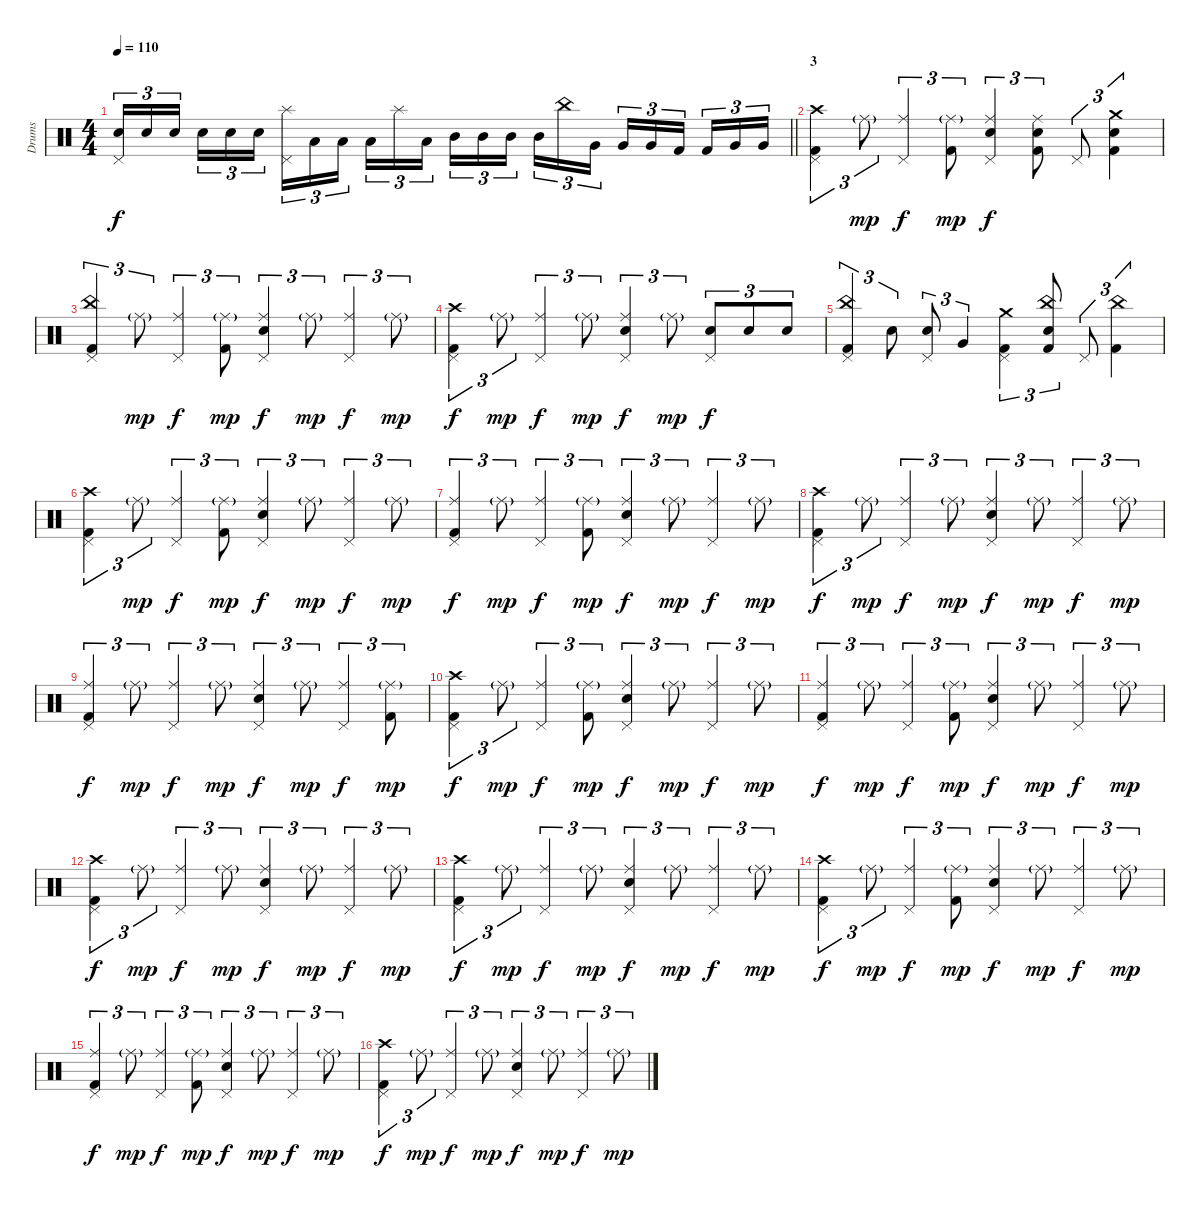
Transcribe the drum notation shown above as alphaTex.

\track ("Drums" "Drums") {instrument percussion}
\staff {score}
\articulation defaults
\ts (4 4)
\tempo 110
\clef neutral
\barLineRight lightlight
\ks c
("Pedal Hi-Hat (hit)" "Electric Snare (hit)").16{tu (3 2) dy f} "Electric Snare (hit)".16{tu (3 2)} "Electric Snare (hit)".16{tu (3 2) beam splitsecondary} "Electric Snare (hit)".16{tu (3 2)} "Electric Snare (hit)".16{tu (3 2)} "Electric Snare (hit)".16{tu (3 2)} ("Pedal Hi-Hat (hit)" "Splash (hit)").16{tu (3 2)} "Low Tom (hit)".16{tu (3 2)} "Low Tom (hit)".16{tu (3 2) beam splitsecondary} "Low Tom (hit)".16{tu (3 2)} "Splash (hit)".16{tu (3 2)} "Low Tom (hit)".16{tu (3 2)} "Mid Tom (hit)".16{tu (3 2)} "Mid Tom (hit)".16{tu (3 2)} "Mid Tom (hit)".16{tu (3 2) beam splitsecondary} "Mid Tom (hit)".16{tu (3 2)} "China (hit)".16{tu (3 2)} "Very Low Tom (hit)".16{tu (3 2)} "Very Low Tom (hit)".16{tu (3 2)} "Very Low Tom (hit)".16{tu (3 2)} "Kick (hit) 2".16{tu (3 2) beam splitsecondary} "Kick (hit) 2".16{tu (3 2)} "Very Low Tom (hit)".16{tu (3 2)} "Very Low Tom (hit)".16{tu (3 2)} |
\section ("" "3")
("Crash high (hit)" "Pedal Hi-Hat (hit)" "Kick (hit) 2").4{tu (3 2)} "Ride (middle)"{g}.8{tu (3 2) dy mp} ("Ride (middle)" "Pedal Hi-Hat (hit)").4{tu (3 2) dy f} ("Ride (middle)"{g} "Kick (hit) 2").8{tu (3 2) dy mp} ("Ride (middle)" "Pedal Hi-Hat (hit)" "Electric Snare (hit)").4{tu (3 2) dy f} ("Ride (middle)" "Electric Snare (hit)" "Kick (hit) 2").8{tu (3 2)} "Pedal Hi-Hat (hit)".8{tu (3 2)} ("Crash medium (hit)" "Electric Snare (hit)" "Kick (hit) 2").4{tu (3 2)} |
("China (hit)" "Pedal Hi-Hat (hit)" "Kick (hit) 2").4{tu (3 2)} "Ride (middle)"{g}.8{tu (3 2) dy mp} ("Ride (middle)" "Pedal Hi-Hat (hit)").4{tu (3 2) dy f} ("Ride (middle)"{g} "Kick (hit) 2").8{tu (3 2) dy mp} ("Ride (middle)" "Pedal Hi-Hat (hit)" "Electric Snare (hit)").4{tu (3 2) dy f} "Ride (middle)"{g}.8{tu (3 2) dy mp} ("Ride (middle)" "Pedal Hi-Hat (hit)").4{tu (3 2) dy f} "Ride (middle)"{g}.8{tu (3 2) dy mp} |
("Crash high (hit)" "Pedal Hi-Hat (hit)" "Kick (hit) 2").4{tu (3 2) dy f} "Ride (middle)"{g}.8{tu (3 2) dy mp} ("Ride (middle)" "Pedal Hi-Hat (hit)").4{tu (3 2) dy f} "Ride (middle)"{g}.8{tu (3 2) dy mp} ("Ride (middle)" "Pedal Hi-Hat (hit)" "Electric Snare (hit)").4{tu (3 2) dy f} "Ride (middle)"{g}.8{tu (3 2) dy mp} ("Pedal Hi-Hat (hit)" "Electric Snare (hit)").8{tu (3 2) dy f} "Electric Snare (hit)".8{tu (3 2)} "Electric Snare (hit)".8{tu (3 2)} |
("China (hit)" "Pedal Hi-Hat (hit)" "Kick (hit) 2").4{tu (3 2)} "Electric Snare (hit)".8{tu (3 2)} ("Pedal Hi-Hat (hit)" "Electric Snare (hit)").8{tu (3 2)} "Very Low Tom (hit)".4{tu (3 2)} ("Crash medium (hit)" "Pedal Hi-Hat (hit)" "Kick (hit) 2").4{tu (3 2)} ("China (hit)" "Electric Snare (hit)" "Kick (hit) 2").8{tu (3 2)} "Pedal Hi-Hat (hit)".8{tu (3 2)} ("China (hit)" "Kick (hit) 2").4{tu (3 2)} |
("Crash high (hit)" "Pedal Hi-Hat (hit)" "Kick (hit) 2").4{tu (3 2)} "Ride (middle)"{g}.8{tu (3 2) dy mp} ("Ride (middle)" "Pedal Hi-Hat (hit)").4{tu (3 2) dy f} ("Ride (middle)"{g} "Kick (hit) 2").8{tu (3 2) dy mp} ("Ride (middle)" "Pedal Hi-Hat (hit)" "Electric Snare (hit)").4{tu (3 2) dy f} "Ride (middle)"{g}.8{tu (3 2) dy mp} ("Ride (middle)" "Pedal Hi-Hat (hit)").4{tu (3 2) dy f} "Ride (middle)"{g}.8{tu (3 2) dy mp} |
("Ride (middle)" "Pedal Hi-Hat (hit)" "Kick (hit) 2").4{tu (3 2) dy f} "Ride (middle)"{g}.8{tu (3 2) dy mp} ("Ride (middle)" "Pedal Hi-Hat (hit)").4{tu (3 2) dy f} ("Ride (middle)"{g} "Kick (hit) 2").8{tu (3 2) dy mp} ("Ride (middle)" "Pedal Hi-Hat (hit)" "Electric Snare (hit)").4{tu (3 2) dy f} "Ride (middle)"{g}.8{tu (3 2) dy mp} ("Ride (middle)" "Pedal Hi-Hat (hit)").4{tu (3 2) dy f} "Ride (middle)"{g}.8{tu (3 2) dy mp} |
("Crash high (hit)" "Pedal Hi-Hat (hit)" "Kick (hit) 2").4{tu (3 2) dy f} "Ride (middle)"{g}.8{tu (3 2) dy mp} ("Ride (middle)" "Pedal Hi-Hat (hit)").4{tu (3 2) dy f} "Ride (middle)"{g}.8{tu (3 2) dy mp} ("Ride (middle)" "Pedal Hi-Hat (hit)" "Electric Snare (hit)").4{tu (3 2) dy f} "Ride (middle)"{g}.8{tu (3 2) dy mp} ("Ride (middle)" "Pedal Hi-Hat (hit)").4{tu (3 2) dy f} "Ride (middle)"{g}.8{tu (3 2) dy mp} |
("Ride (middle)" "Pedal Hi-Hat (hit)" "Kick (hit) 2").4{tu (3 2) dy f} "Ride (middle)"{g}.8{tu (3 2) dy mp} ("Ride (middle)" "Pedal Hi-Hat (hit)").4{tu (3 2) dy f} "Ride (middle)"{g}.8{tu (3 2) dy mp} ("Ride (middle)" "Pedal Hi-Hat (hit)" "Electric Snare (hit)").4{tu (3 2) dy f} "Ride (middle)"{g}.8{tu (3 2) dy mp} ("Ride (middle)" "Pedal Hi-Hat (hit)").4{tu (3 2) dy f} ("Ride (middle)"{g} "Kick (hit) 2").8{tu (3 2) dy mp} |
("Crash high (hit)" "Pedal Hi-Hat (hit)" "Kick (hit) 2").4{tu (3 2) dy f} "Ride (middle)"{g}.8{tu (3 2) dy mp} ("Ride (middle)" "Pedal Hi-Hat (hit)").4{tu (3 2) dy f} ("Ride (middle)"{g} "Kick (hit) 2").8{tu (3 2) dy mp} ("Ride (middle)" "Pedal Hi-Hat (hit)" "Electric Snare (hit)").4{tu (3 2) dy f} "Ride (middle)"{g}.8{tu (3 2) dy mp} ("Ride (middle)" "Pedal Hi-Hat (hit)").4{tu (3 2) dy f} "Ride (middle)"{g}.8{tu (3 2) dy mp} |
("Ride (middle)" "Pedal Hi-Hat (hit)" "Kick (hit) 2").4{tu (3 2) dy f} "Ride (middle)"{g}.8{tu (3 2) dy mp} ("Ride (middle)" "Pedal Hi-Hat (hit)").4{tu (3 2) dy f} ("Ride (middle)"{g} "Kick (hit) 2").8{tu (3 2) dy mp} ("Ride (middle)" "Pedal Hi-Hat (hit)" "Electric Snare (hit)").4{tu (3 2) dy f} "Ride (middle)"{g}.8{tu (3 2) dy mp} ("Ride (middle)" "Pedal Hi-Hat (hit)").4{tu (3 2) dy f} "Ride (middle)"{g}.8{tu (3 2) dy mp} |
("Crash high (hit)" "Pedal Hi-Hat (hit)" "Kick (hit) 2").4{tu (3 2) dy f} "Ride (middle)"{g}.8{tu (3 2) dy mp} ("Ride (middle)" "Pedal Hi-Hat (hit)").4{tu (3 2) dy f} "Ride (middle)"{g}.8{tu (3 2) dy mp} ("Ride (middle)" "Pedal Hi-Hat (hit)" "Electric Snare (hit)").4{tu (3 2) dy f} "Ride (middle)"{g}.8{tu (3 2) dy mp} ("Ride (middle)" "Pedal Hi-Hat (hit)").4{tu (3 2) dy f} "Ride (middle)"{g}.8{tu (3 2) dy mp} |
("Crash high (hit)" "Pedal Hi-Hat (hit)" "Kick (hit) 2").4{tu (3 2) dy f} "Ride (middle)"{g}.8{tu (3 2) dy mp} ("Ride (middle)" "Pedal Hi-Hat (hit)").4{tu (3 2) dy f} "Ride (middle)"{g}.8{tu (3 2) dy mp} ("Ride (middle)" "Pedal Hi-Hat (hit)" "Electric Snare (hit)").4{tu (3 2) dy f} "Ride (middle)"{g}.8{tu (3 2) dy mp} ("Ride (middle)" "Pedal Hi-Hat (hit)").4{tu (3 2) dy f} "Ride (middle)"{g}.8{tu (3 2) dy mp} |
("Crash high (hit)" "Pedal Hi-Hat (hit)" "Kick (hit) 2").4{tu (3 2) dy f} "Ride (middle)"{g}.8{tu (3 2) dy mp} ("Ride (middle)" "Pedal Hi-Hat (hit)").4{tu (3 2) dy f} ("Ride (middle)"{g} "Kick (hit) 2").8{tu (3 2) dy mp} ("Ride (middle)" "Pedal Hi-Hat (hit)" "Electric Snare (hit)").4{tu (3 2) dy f} "Ride (middle)"{g}.8{tu (3 2) dy mp} ("Ride (middle)" "Pedal Hi-Hat (hit)").4{tu (3 2) dy f} "Ride (middle)"{g}.8{tu (3 2) dy mp} |
("Ride (middle)" "Pedal Hi-Hat (hit)" "Kick (hit) 2").4{tu (3 2) dy f} "Ride (middle)"{g}.8{tu (3 2) dy mp} ("Ride (middle)" "Pedal Hi-Hat (hit)").4{tu (3 2) dy f} ("Ride (middle)"{g} "Kick (hit) 2").8{tu (3 2) dy mp} ("Ride (middle)" "Pedal Hi-Hat (hit)" "Electric Snare (hit)").4{tu (3 2) dy f} "Ride (middle)"{g}.8{tu (3 2) dy mp} ("Ride (middle)" "Pedal Hi-Hat (hit)").4{tu (3 2) dy f} "Ride (middle)"{g}.8{tu (3 2) dy mp} |
("Crash high (hit)" "Pedal Hi-Hat (hit)" "Kick (hit) 2").4{tu (3 2) dy f} "Ride (middle)"{g}.8{tu (3 2) dy mp} ("Ride (middle)" "Pedal Hi-Hat (hit)").4{tu (3 2) dy f} "Ride (middle)"{g}.8{tu (3 2) dy mp} ("Ride (middle)" "Pedal Hi-Hat (hit)" "Electric Snare (hit)").4{tu (3 2) dy f} "Ride (middle)"{g}.8{tu (3 2) dy mp} ("Ride (middle)" "Pedal Hi-Hat (hit)").4{tu (3 2) dy f} "Ride (middle)"{g}.8{tu (3 2) dy mp}
